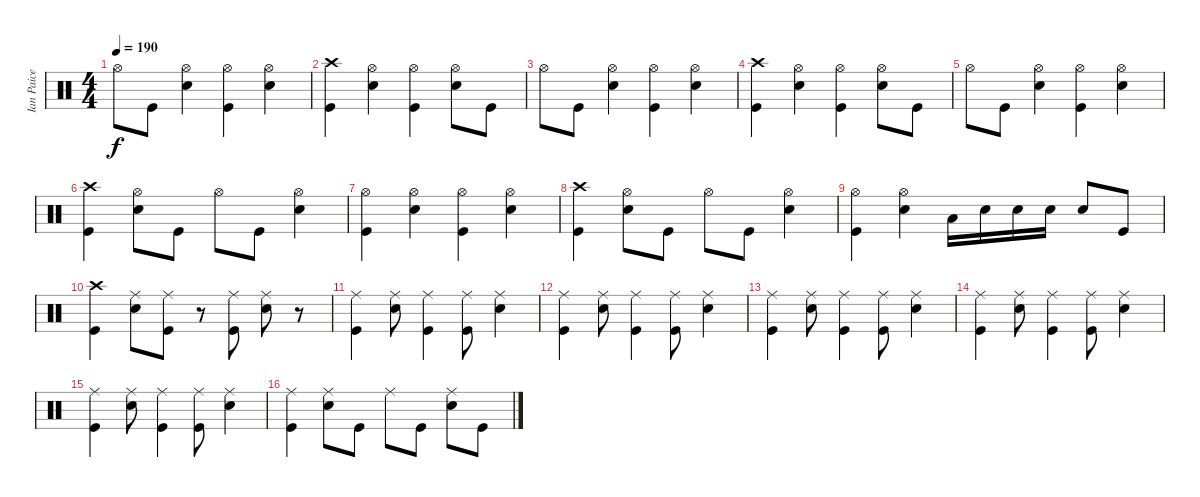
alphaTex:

\track ("Ian Paice" "Ian Paice") {instrument percussion}
\staff {score}
\articulation defaults
\ts (4 4)
\tempo 190
\clef neutral
\ks c "Hi-Hat (open)".8{dy f} "Kick (hit)".8
("Hi-Hat (open)" "Snare (hit) 2").4 ("Hi-Hat (open)" "Kick (hit)").4 ("Hi-Hat (open)" "Snare (hit) 2").4 |
("Crash high (hit)" "Kick (hit)").4 ("Snare (hit) 2" "Hi-Hat (open)").4 ("Hi-Hat (open)" "Kick (hit)").4 ("Hi-Hat (open)" "Snare (hit) 2").8 "Kick (hit)".8 |
"Hi-Hat (open)".8 "Kick (hit)".8 ("Hi-Hat (open)" "Snare (hit) 2").4 ("Hi-Hat (open)" "Kick (hit)").4 ("Hi-Hat (open)" "Snare (hit) 2").4 |
("Crash high (hit)" "Kick (hit)").4 ("Snare (hit) 2" "Hi-Hat (open)").4 ("Hi-Hat (open)" "Kick (hit)").4 ("Hi-Hat (open)" "Snare (hit) 2").8 "Kick (hit)".8 |
"Hi-Hat (open)".8 "Kick (hit)".8 ("Hi-Hat (open)" "Snare (hit) 2").4 ("Hi-Hat (open)" "Kick (hit)").4 ("Hi-Hat (open)" "Snare (hit) 2").4 |
("Crash high (hit)" "Kick (hit)").4 ("Snare (hit) 2" "Hi-Hat (open)").8 "Kick (hit)".8 "Hi-Hat (open)".8 "Kick (hit)".8 ("Hi-Hat (open)" "Snare (hit) 2").4 |
("Kick (hit)" "Hi-Hat (open)").4 ("Hi-Hat (open)" "Snare (hit) 2").4 ("Hi-Hat (open)" "Kick (hit)").4 ("Hi-Hat (open)" "Snare (hit) 2").4 |
("Crash high (hit)" "Kick (hit)").4 ("Snare (hit) 2" "Hi-Hat (open)").8 "Kick (hit)".8 "Hi-Hat (open)".8 "Kick (hit)".8 ("Hi-Hat (open)" "Snare (hit) 2").4 |
("Kick (hit)" "Hi-Hat (open)").4 ("Hi-Hat (open)" "Snare (hit) 2").4 "Low Tom (hit)".16 "Snare (hit) 2".16 "Snare (hit) 2".16 "Snare (hit) 2".16 "Snare (hit) 2".8 "Kick (hit)".8 |
("Crash high (hit)" "Kick (hit)").4 ("Snare (hit) 2" "Ride (middle)").8 ("Kick (hit)" "Ride (middle)").8 r.8 ("Kick (hit)" "Ride (middle)").8 ("Snare (hit) 2" "Ride (middle)").8 r.8 |
("Kick (hit)" "Ride (middle)").4 ("Snare (hit) 2" "Ride (middle)").8 ("Kick (hit)" "Ride (middle)").4 ("Kick (hit)" "Ride (middle)").8 ("Snare (hit) 2" "Ride (middle)").4 |
("Kick (hit)" "Ride (middle)").4 ("Snare (hit) 2" "Ride (middle)").8 ("Kick (hit)" "Ride (middle)").4 ("Kick (hit)" "Ride (middle)").8 ("Snare (hit) 2" "Ride (middle)").4 |
("Kick (hit)" "Ride (middle)").4 ("Snare (hit) 2" "Ride (middle)").8 ("Kick (hit)" "Ride (middle)").4 ("Kick (hit)" "Ride (middle)").8 ("Snare (hit) 2" "Ride (middle)").4 |
("Kick (hit)" "Ride (middle)").4 ("Snare (hit) 2" "Ride (middle)").8 ("Kick (hit)" "Ride (middle)").4 ("Kick (hit)" "Ride (middle)").8 ("Snare (hit) 2" "Ride (middle)").4 |
("Kick (hit)" "Ride (middle)").4 ("Snare (hit) 2" "Ride (middle)").8 ("Kick (hit)" "Ride (middle)").4 ("Kick (hit)" "Ride (middle)").8 ("Snare (hit) 2" "Ride (middle)").4 |
("Kick (hit)" "Ride (middle)").4 ("Snare (hit) 2" "Ride (middle)").8 "Kick (hit)".8 "Ride (middle)".8 "Kick (hit)".8 ("Snare (hit) 2" "Ride (middle)").8 "Kick (hit)".8
